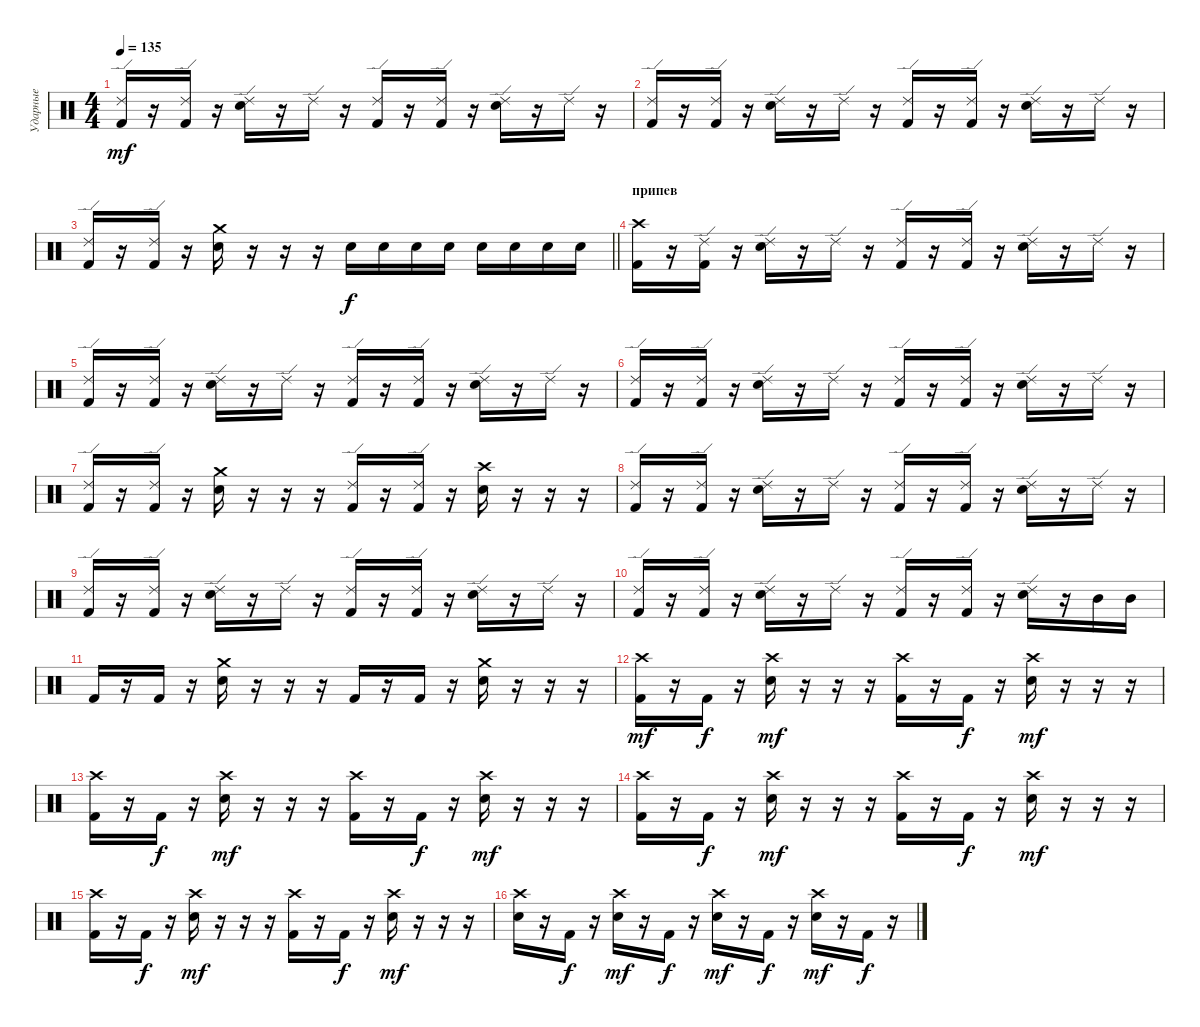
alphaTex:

\track ("Ударные" "Ударные") {instrument percussion}
\staff {score}
\articulation defaults
\ts (4 4)
\tempo 135
\clef neutral
\ks c
("Ride (edge) 2" "Kick (hit) 2").16{dy mf} r.16 ("Ride (edge) 2" "Kick (hit) 2").16 r.16 ("Ride (edge) 2" "Electric Snare (hit)").16 r.16 "Ride (edge) 2".16 r.16 ("Ride (edge) 2" "Kick (hit) 2").16 r.16 ("Ride (edge) 2" "Kick (hit) 2").16 r.16 ("Ride (edge) 2" "Electric Snare (hit)").16 r.16 "Ride (edge) 2".16 r.16 |
("Ride (edge) 2" "Kick (hit) 2").16 r.16 ("Ride (edge) 2" "Kick (hit) 2").16 r.16 ("Ride (edge) 2" "Electric Snare (hit)").16 r.16 "Ride (edge) 2".16 r.16 ("Ride (edge) 2" "Kick (hit) 2").16 r.16 ("Ride (edge) 2" "Kick (hit) 2").16 r.16 ("Ride (edge) 2" "Electric Snare (hit)").16 r.16 "Ride (edge) 2".16 r.16 |
\barLineRight lightlight
("Ride (edge) 2" "Kick (hit) 2").16 r.16 ("Ride (edge) 2" "Kick (hit) 2").16 r.16 ("Crash medium (hit)" "Electric Snare (hit)").16 r.16 r.16 r.16 "Electric Snare (hit)".16{dy f} "Electric Snare (hit)".16 "Electric Snare (hit)".16 "Electric Snare (hit)".16 "Electric Snare (hit)".16 "Electric Snare (hit)".16 "Electric Snare (hit)".16 "Electric Snare (hit)".16 |
\section ("" "припев")
("Crash high (hit)" "Kick (hit) 2").16 r.16 ("Ride (edge) 2" "Kick (hit) 2").16 r.16 ("Ride (edge) 2" "Electric Snare (hit)").16 r.16 "Ride (edge) 2".16 r.16 ("Ride (edge) 2" "Kick (hit) 2").16 r.16 ("Ride (edge) 2" "Kick (hit) 2").16 r.16 ("Ride (edge) 2" "Electric Snare (hit)").16 r.16 "Ride (edge) 2".16 r.16 |
("Ride (edge) 2" "Kick (hit) 2").16 r.16 ("Ride (edge) 2" "Kick (hit) 2").16 r.16 ("Ride (edge) 2" "Electric Snare (hit)").16 r.16 "Ride (edge) 2".16 r.16 ("Ride (edge) 2" "Kick (hit) 2").16 r.16 ("Ride (edge) 2" "Kick (hit) 2").16 r.16 ("Ride (edge) 2" "Electric Snare (hit)").16 r.16 "Ride (edge) 2".16 r.16 |
("Ride (edge) 2" "Kick (hit) 2").16 r.16 ("Ride (edge) 2" "Kick (hit) 2").16 r.16 ("Ride (edge) 2" "Electric Snare (hit)").16 r.16 "Ride (edge) 2".16 r.16 ("Ride (edge) 2" "Kick (hit) 2").16 r.16 ("Ride (edge) 2" "Kick (hit) 2").16 r.16 ("Ride (edge) 2" "Electric Snare (hit)").16 r.16 "Ride (edge) 2".16 r.16 |
("Ride (edge) 2" "Kick (hit) 2").16 r.16 ("Ride (edge) 2" "Kick (hit) 2").16 r.16 ("Crash medium (hit)" "Electric Snare (hit)").16 r.16 r.16 r.16 ("Ride (edge) 2" "Kick (hit) 2").16 r.16 ("Ride (edge) 2" "Kick (hit) 2").16 r.16 ("Crash high (hit)" "Electric Snare (hit)").16 r.16 r.16 r.16 |
("Ride (edge) 2" "Kick (hit) 2").16 r.16 ("Ride (edge) 2" "Kick (hit) 2").16 r.16 ("Ride (edge) 2" "Electric Snare (hit)").16 r.16 "Ride (edge) 2".16 r.16 ("Ride (edge) 2" "Kick (hit) 2").16 r.16 ("Ride (edge) 2" "Kick (hit) 2").16 r.16 ("Ride (edge) 2" "Electric Snare (hit)").16 r.16 "Ride (edge) 2".16 r.16 |
("Ride (edge) 2" "Kick (hit) 2").16 r.16 ("Ride (edge) 2" "Kick (hit) 2").16 r.16 ("Ride (edge) 2" "Electric Snare (hit)").16 r.16 "Ride (edge) 2".16 r.16 ("Ride (edge) 2" "Kick (hit) 2").16 r.16 ("Ride (edge) 2" "Kick (hit) 2").16 r.16 ("Ride (edge) 2" "Electric Snare (hit)").16 r.16 "Ride (edge) 2".16 r.16 |
("Ride (edge) 2" "Kick (hit) 2").16 r.16 ("Ride (edge) 2" "Kick (hit) 2").16 r.16 ("Ride (edge) 2" "Electric Snare (hit)").16 r.16 "Ride (edge) 2".16 r.16 ("Ride (edge) 2" "Kick (hit) 2").16 r.16 ("Ride (edge) 2" "Kick (hit) 2").16 r.16 ("Ride (edge) 2" "Electric Snare (hit)").16 r.16 "Mid Tom (hit)".16 "Mid Tom (hit)".16 |
"Kick (hit) 2".16 r.16 "Kick (hit) 2".16 r.16 ("Crash medium (hit)" "Electric Snare (hit)").16 r.16 r.16 r.16 "Kick (hit) 2".16 r.16 "Kick (hit) 2".16 r.16 ("Crash medium (hit)" "Electric Snare (hit)").16 r.16 r.16 r.16 |
("Crash high (hit)" "Kick (hit) 2").16{dy mf} r.16 "Kick (hit) 2".16{dy f} r.16 ("Crash high (hit)" "Electric Snare (hit)").16{dy mf} r.16 r.16 r.16 ("Crash high (hit)" "Kick (hit) 2").16 r.16 "Kick (hit) 2".16{dy f} r.16 ("Crash high (hit)" "Electric Snare (hit)").16{dy mf} r.16 r.16 r.16 |
("Crash high (hit)" "Kick (hit) 2").16 r.16 "Kick (hit) 2".16{dy f} r.16 ("Crash high (hit)" "Electric Snare (hit)").16{dy mf} r.16 r.16 r.16 ("Crash high (hit)" "Kick (hit) 2").16 r.16 "Kick (hit) 2".16{dy f} r.16 ("Crash high (hit)" "Electric Snare (hit)").16{dy mf} r.16 r.16 r.16 |
("Crash high (hit)" "Kick (hit) 2").16 r.16 "Kick (hit) 2".16{dy f} r.16 ("Crash high (hit)" "Electric Snare (hit)").16{dy mf} r.16 r.16 r.16 ("Crash high (hit)" "Kick (hit) 2").16 r.16 "Kick (hit) 2".16{dy f} r.16 ("Crash high (hit)" "Electric Snare (hit)").16{dy mf} r.16 r.16 r.16 |
("Crash high (hit)" "Kick (hit) 2").16 r.16 "Kick (hit) 2".16{dy f} r.16 ("Crash high (hit)" "Electric Snare (hit)").16{dy mf} r.16 r.16 r.16 ("Crash high (hit)" "Kick (hit) 2").16 r.16 "Kick (hit) 2".16{dy f} r.16 ("Crash high (hit)" "Electric Snare (hit)").16{dy mf} r.16 r.16 r.16 |
("Crash high (hit)" "Electric Snare (hit)").16 r.16 "Kick (hit) 2".16{dy f} r.16 ("Crash high (hit)" "Electric Snare (hit)").16{dy mf} r.16 "Kick (hit) 2".16{dy f} r.16 ("Crash high (hit)" "Electric Snare (hit)").16{dy mf} r.16 "Kick (hit) 2".16{dy f} r.16 ("Crash high (hit)" "Electric Snare (hit)").16{dy mf} r.16 "Kick (hit) 2".16{dy f} r.16
